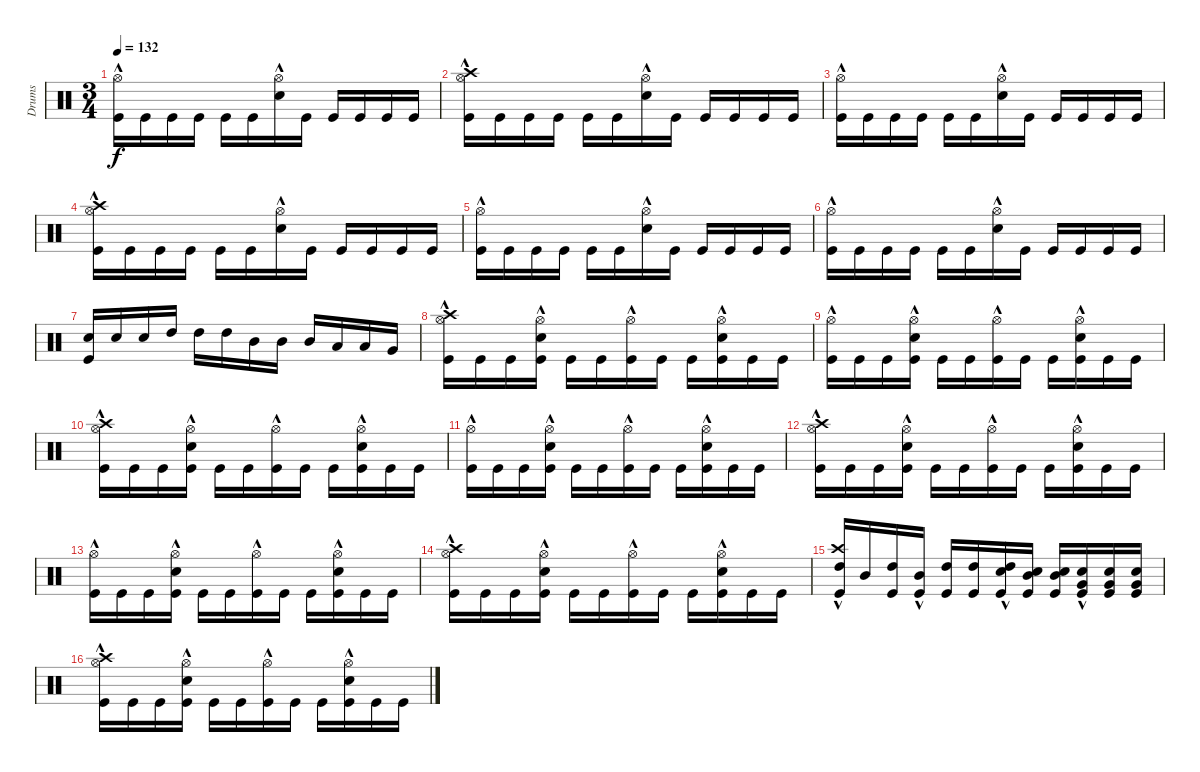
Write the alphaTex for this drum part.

\track ("Drums" "Drums") {instrument percussion}
\staff {score}
\articulation defaults
\ts (3 4)
\tempo 132
\clef neutral
\ks c
("Hi-Hat (open)"{hac} "Kick (hit)").16{dy f} "Kick (hit)".16 "Kick (hit)".16 "Kick (hit)".16 "Kick (hit)".16 "Kick (hit)".16 ("Hi-Hat (open)"{hac} "Electric Snare (hit)").16 "Kick (hit)".16 "Kick (hit)".16 "Kick (hit)".16 "Kick (hit)".16 "Kick (hit)".16 |
("Crash high (hit)" "Hi-Hat (open)"{hac} "Kick (hit)").16 "Kick (hit)".16 "Kick (hit)".16 "Kick (hit)".16 "Kick (hit)".16 "Kick (hit)".16 ("Hi-Hat (open)"{hac} "Electric Snare (hit)").16 "Kick (hit)".16 "Kick (hit)".16 "Kick (hit)".16 "Kick (hit)".16 "Kick (hit)".16 |
("Hi-Hat (open)"{hac} "Kick (hit)").16 "Kick (hit)".16 "Kick (hit)".16 "Kick (hit)".16 "Kick (hit)".16 "Kick (hit)".16 ("Hi-Hat (open)"{hac} "Electric Snare (hit)").16 "Kick (hit)".16 "Kick (hit)".16 "Kick (hit)".16 "Kick (hit)".16 "Kick (hit)".16 |
("Crash high (hit)" "Hi-Hat (open)"{hac} "Kick (hit)").16 "Kick (hit)".16 "Kick (hit)".16 "Kick (hit)".16 "Kick (hit)".16 "Kick (hit)".16 ("Hi-Hat (open)"{hac} "Electric Snare (hit)").16 "Kick (hit)".16 "Kick (hit)".16 "Kick (hit)".16 "Kick (hit)".16 "Kick (hit)".16 |
("Hi-Hat (open)"{hac} "Kick (hit)").16 "Kick (hit)".16 "Kick (hit)".16 "Kick (hit)".16 "Kick (hit)".16 "Kick (hit)".16 ("Hi-Hat (open)"{hac} "Electric Snare (hit)").16 "Kick (hit)".16 "Kick (hit)".16 "Kick (hit)".16 "Kick (hit)".16 "Kick (hit)".16 |
("Hi-Hat (open)"{hac} "Kick (hit)").16 "Kick (hit)".16 "Kick (hit)".16 "Kick (hit)".16 "Kick (hit)".16 "Kick (hit)".16 ("Hi-Hat (open)"{hac} "Electric Snare (hit)").16 "Kick (hit)".16 "Kick (hit)".16 "Kick (hit)".16 "Kick (hit)".16 "Kick (hit)".16 |
("Snare (hit) 2" "Kick (hit)").16 "Snare (hit) 2".16 "Snare (hit) 2".16 "High Tom (hit)".16 "High Tom (hit)".16 "High Tom (hit)".16 "Mid Tom (hit)".16 "Mid Tom (hit)".16 "Mid Tom (hit)".16 "Low Tom (hit)".16 "Low Tom (hit)".16 "Very Low Tom (hit)".16 |
("Crash high (hit)" "Hi-Hat (open)"{hac} "Kick (hit)").16 "Kick (hit)".16 "Kick (hit)".16 ("Hi-Hat (open)"{hac} "Kick (hit)" "Electric Snare (hit)").16 "Kick (hit)".16 "Kick (hit)".16 ("Hi-Hat (open)"{hac} "Kick (hit)").16 "Kick (hit)".16 "Kick (hit)".16 ("Hi-Hat (open)"{hac} "Kick (hit)" "Electric Snare (hit)").16 "Kick (hit)".16 "Kick (hit)".16 |
("Hi-Hat (open)"{hac} "Kick (hit)").16 "Kick (hit)".16 "Kick (hit)".16 ("Hi-Hat (open)"{hac} "Kick (hit)" "Electric Snare (hit)").16 "Kick (hit)".16 "Kick (hit)".16 ("Hi-Hat (open)"{hac} "Kick (hit)").16 "Kick (hit)".16 "Kick (hit)".16 ("Hi-Hat (open)"{hac} "Kick (hit)" "Electric Snare (hit)").16 "Kick (hit)".16 "Kick (hit)".16 |
("Crash high (hit)" "Hi-Hat (open)"{hac} "Kick (hit)").16 "Kick (hit)".16 "Kick (hit)".16 ("Hi-Hat (open)"{hac} "Kick (hit)" "Electric Snare (hit)").16 "Kick (hit)".16 "Kick (hit)".16 ("Hi-Hat (open)"{hac} "Kick (hit)").16 "Kick (hit)".16 "Kick (hit)".16 ("Hi-Hat (open)"{hac} "Kick (hit)" "Electric Snare (hit)").16 "Kick (hit)".16 "Kick (hit)".16 |
("Hi-Hat (open)"{hac} "Kick (hit)").16 "Kick (hit)".16 "Kick (hit)".16 ("Hi-Hat (open)"{hac} "Kick (hit)" "Electric Snare (hit)").16 "Kick (hit)".16 "Kick (hit)".16 ("Hi-Hat (open)"{hac} "Kick (hit)").16 "Kick (hit)".16 "Kick (hit)".16 ("Hi-Hat (open)"{hac} "Kick (hit)" "Electric Snare (hit)").16 "Kick (hit)".16 "Kick (hit)".16 |
("Crash high (hit)" "Hi-Hat (open)"{hac} "Kick (hit)").16 "Kick (hit)".16 "Kick (hit)".16 ("Hi-Hat (open)"{hac} "Kick (hit)" "Electric Snare (hit)").16 "Kick (hit)".16 "Kick (hit)".16 ("Hi-Hat (open)"{hac} "Kick (hit)").16 "Kick (hit)".16 "Kick (hit)".16 ("Hi-Hat (open)"{hac} "Kick (hit)" "Electric Snare (hit)").16 "Kick (hit)".16 "Kick (hit)".16 |
("Hi-Hat (open)"{hac} "Kick (hit)").16 "Kick (hit)".16 "Kick (hit)".16 ("Hi-Hat (open)"{hac} "Kick (hit)" "Electric Snare (hit)").16 "Kick (hit)".16 "Kick (hit)".16 ("Hi-Hat (open)"{hac} "Kick (hit)").16 "Kick (hit)".16 "Kick (hit)".16 ("Hi-Hat (open)"{hac} "Kick (hit)" "Electric Snare (hit)").16 "Kick (hit)".16 "Kick (hit)".16 |
("Crash high (hit)" "Hi-Hat (open)"{hac} "Kick (hit)").16 "Kick (hit)".16 "Kick (hit)".16 ("Hi-Hat (open)"{hac} "Kick (hit)" "Electric Snare (hit)").16 "Kick (hit)".16 "Kick (hit)".16 ("Hi-Hat (open)"{hac} "Kick (hit)").16 "Kick (hit)".16 "Kick (hit)".16 ("Hi-Hat (open)"{hac} "Kick (hit)" "Electric Snare (hit)").16 "Kick (hit)".16 "Kick (hit)".16 |
("High Tom (hit)"{hac} "Crash high (hit)" "Kick (hit)").16 "Mid Tom (hit)".16 ("High Tom (hit)" "Kick (hit)").16 ("Mid Tom (hit)"{hac} "Kick (hit)").16 ("High Tom (hit)" "Kick (hit)").16 ("High Tom (hit)" "Kick (hit)").16 ("High Tom (hit)"{hac} "Snare (hit) 2" "Kick (hit)").16 ("Mid Tom (hit)" "Snare (hit) 2" "Kick (hit)").16 ("Mid Tom (hit)" "Snare (hit) 2" "Kick (hit)").16 ("Very Low Tom (hit)"{hac} "Snare (hit) 2" "Kick (hit)").16 ("Very Low Tom (hit)" "Snare (hit) 2" "Kick (hit)").16 ("Very Low Tom (hit)" "Snare (hit) 2" "Kick (hit)").16 |
("Crash high (hit)" "Hi-Hat (open)"{hac} "Kick (hit)").16 "Kick (hit)".16 "Kick (hit)".16 ("Hi-Hat (open)"{hac} "Kick (hit)" "Electric Snare (hit)").16 "Kick (hit)".16 "Kick (hit)".16 ("Hi-Hat (open)"{hac} "Kick (hit)").16 "Kick (hit)".16 "Kick (hit)".16 ("Hi-Hat (open)"{hac} "Kick (hit)" "Electric Snare (hit)").16 "Kick (hit)".16 "Kick (hit)".16
